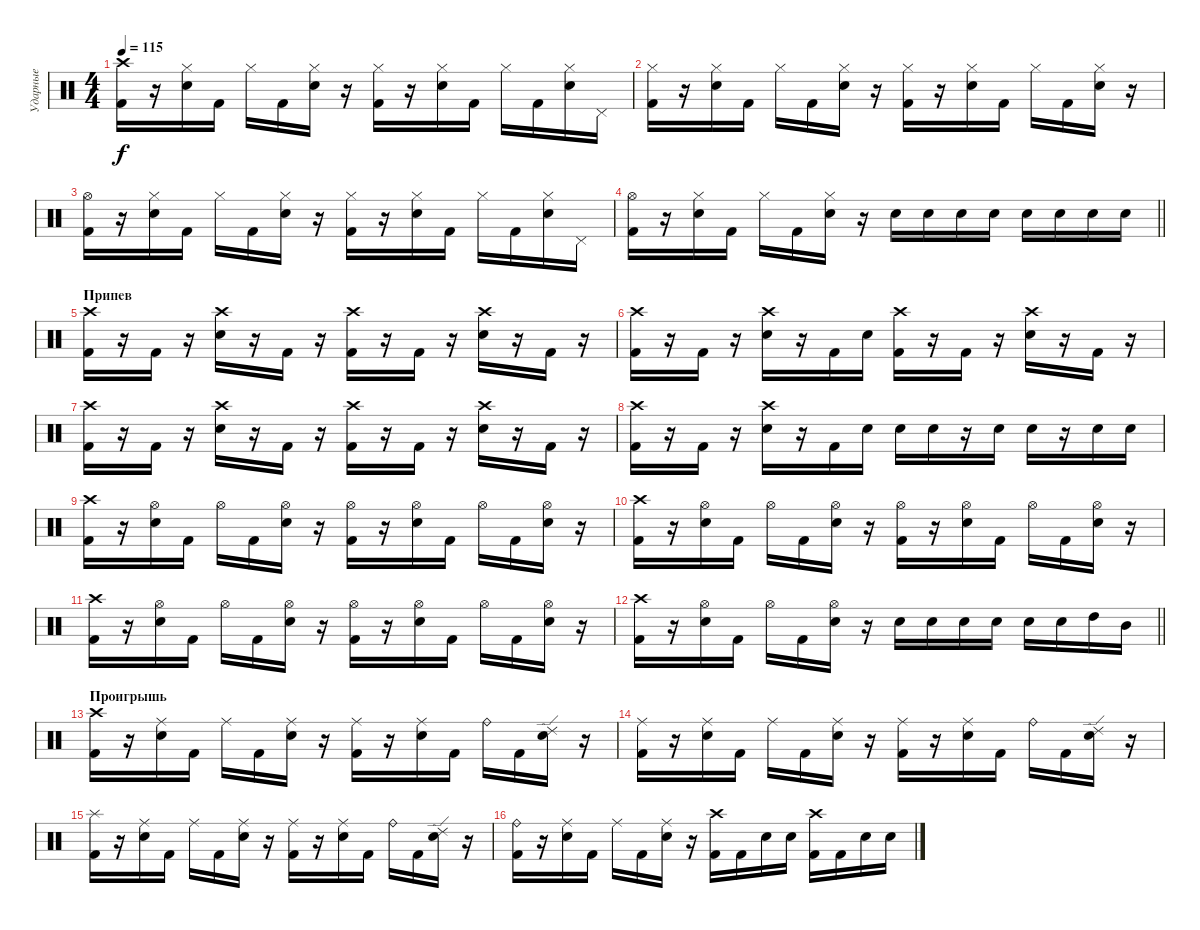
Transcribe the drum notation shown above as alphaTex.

\track ("Ударные" "Ударные") {instrument percussion}
\staff {score}
\articulation defaults
\ts (4 4)
\tempo 115
\clef neutral
\ks c
("Kick (hit) 2" "Crash high (hit)").16{dy f} r.16 ("Electric Snare (hit)" "Hi-Hat (closed)").16 "Kick (hit) 2".16 "Hi-Hat (closed)".16 "Kick (hit) 2".16 ("Electric Snare (hit)" "Hi-Hat (closed)").16 r.16 ("Kick (hit) 2" "Hi-Hat (closed)").16 r.16 ("Electric Snare (hit)" "Hi-Hat (closed)").16 "Kick (hit) 2".16 "Hi-Hat (closed)".16 "Kick (hit) 2".16 ("Electric Snare (hit)" "Hi-Hat (closed)").16 "Pedal Hi-Hat (hit)".16 |
("Kick (hit) 2" "Hi-Hat (closed)").16 r.16 ("Electric Snare (hit)" "Hi-Hat (closed)").16 "Kick (hit) 2".16 "Hi-Hat (closed)".16 "Kick (hit) 2".16 ("Electric Snare (hit)" "Hi-Hat (closed)").16 r.16 ("Kick (hit) 2" "Hi-Hat (closed)").16 r.16 ("Electric Snare (hit)" "Hi-Hat (closed)").16 "Kick (hit) 2".16 "Hi-Hat (closed)".16 "Kick (hit) 2".16 ("Electric Snare (hit)" "Hi-Hat (closed)").16 r.16 |
("Kick (hit) 2" "Hi-Hat (open)").16 r.16 ("Electric Snare (hit)" "Hi-Hat (closed)").16 "Kick (hit) 2".16 "Hi-Hat (closed)".16 "Kick (hit) 2".16 ("Electric Snare (hit)" "Hi-Hat (closed)").16 r.16 ("Kick (hit) 2" "Hi-Hat (closed)").16 r.16 ("Electric Snare (hit)" "Hi-Hat (closed)").16 "Kick (hit) 2".16 "Hi-Hat (closed)".16 "Kick (hit) 2".16 ("Electric Snare (hit)" "Hi-Hat (closed)").16 "Pedal Hi-Hat (hit)".16 |
\barLineRight lightlight
("Kick (hit) 2" "Hi-Hat (open)").16 r.16 ("Electric Snare (hit)" "Hi-Hat (closed)").16 "Kick (hit) 2".16 "Hi-Hat (closed)".16 "Kick (hit) 2".16 ("Electric Snare (hit)" "Hi-Hat (closed)").16 r.16 "Electric Snare (hit)".16 "Electric Snare (hit)".16 "Electric Snare (hit)".16 "Electric Snare (hit)".16 "Electric Snare (hit)".16 "Electric Snare (hit)".16 "Electric Snare (hit)".16 "Electric Snare (hit)".16 |
\section ("" "Припев")
("Kick (hit) 2" "Crash high (hit)").16 r.16 "Kick (hit) 2".16 r.16 ("Snare (hit) 2" "Crash high (hit)").16 r.16 "Kick (hit) 2".16 r.16 ("Kick (hit) 2" "Crash high (hit)").16 r.16 "Kick (hit) 2".16 r.16 ("Snare (hit) 2" "Crash high (hit)").16 r.16 "Kick (hit) 2".16 r.16 |
("Kick (hit) 2" "Crash high (hit)").16 r.16 "Kick (hit) 2".16 r.16 ("Snare (hit) 2" "Crash high (hit)").16 r.16 "Kick (hit) 2".16 "Electric Snare (hit)".16 ("Kick (hit) 2" "Crash high (hit)").16 r.16 "Kick (hit) 2".16 r.16 ("Snare (hit) 2" "Crash high (hit)").16 r.16 "Kick (hit) 2".16 r.16 |
("Kick (hit) 2" "Crash high (hit)").16 r.16 "Kick (hit) 2".16 r.16 ("Snare (hit) 2" "Crash high (hit)").16 r.16 "Kick (hit) 2".16 r.16 ("Kick (hit) 2" "Crash high (hit)").16 r.16 "Kick (hit) 2".16 r.16 ("Snare (hit) 2" "Crash high (hit)").16 r.16 "Kick (hit) 2".16 r.16 |
("Kick (hit) 2" "Crash high (hit)").16 r.16 "Kick (hit) 2".16 r.16 ("Snare (hit) 2" "Crash high (hit)").16 r.16 "Kick (hit) 2".16 "Electric Snare (hit)".16 "Electric Snare (hit)".16 "Electric Snare (hit)".16 r.16 "Electric Snare (hit)".16 "Electric Snare (hit)".16 r.16 "Electric Snare (hit)".16 "Electric Snare (hit)".16 |
("Kick (hit) 2" "Crash high (hit)").16 r.16 ("Electric Snare (hit)" "Hi-Hat (open)").16 "Kick (hit) 2".16 "Hi-Hat (open)".16 "Kick (hit) 2".16 ("Electric Snare (hit)" "Hi-Hat (open)").16 r.16 ("Kick (hit) 2" "Hi-Hat (open)").16 r.16 ("Electric Snare (hit)" "Hi-Hat (open)").16 "Kick (hit) 2".16 "Hi-Hat (open)".16 "Kick (hit) 2".16 ("Electric Snare (hit)" "Hi-Hat (open)").16 r.16 |
("Kick (hit) 2" "Crash high (hit)").16 r.16 ("Electric Snare (hit)" "Hi-Hat (open)").16 "Kick (hit) 2".16 "Hi-Hat (open)".16 "Kick (hit) 2".16 ("Electric Snare (hit)" "Hi-Hat (open)").16 r.16 ("Kick (hit) 2" "Hi-Hat (open)").16 r.16 ("Electric Snare (hit)" "Hi-Hat (open)").16 "Kick (hit) 2".16 "Hi-Hat (open)".16 "Kick (hit) 2".16 ("Electric Snare (hit)" "Hi-Hat (open)").16 r.16 |
("Kick (hit) 2" "Crash high (hit)").16 r.16 ("Electric Snare (hit)" "Hi-Hat (open)").16 "Kick (hit) 2".16 "Hi-Hat (open)".16 "Kick (hit) 2".16 ("Electric Snare (hit)" "Hi-Hat (open)").16 r.16 ("Kick (hit) 2" "Hi-Hat (open)").16 r.16 ("Electric Snare (hit)" "Hi-Hat (open)").16 "Kick (hit) 2".16 "Hi-Hat (open)".16 "Kick (hit) 2".16 ("Electric Snare (hit)" "Hi-Hat (open)").16 r.16 |
\barLineRight lightlight
("Kick (hit) 2" "Crash high (hit)").16 r.16 ("Electric Snare (hit)" "Hi-Hat (open)").16 "Kick (hit) 2".16 "Hi-Hat (open)".16 "Kick (hit) 2".16 ("Electric Snare (hit)" "Hi-Hat (open)").16 r.16 "Electric Snare (hit)".16 "Electric Snare (hit)".16 "Electric Snare (hit)".16 "Electric Snare (hit)".16 "Electric Snare (hit)".16 "Electric Snare (hit)".16 "High Tom (hit)".16 "Mid Tom (hit)".16 |
\section ("" "Проигрышь")
("Kick (hit) 2" "Crash high (hit)").16 r.16 ("Electric Snare (hit)" "Ride (middle)").16 "Kick (hit) 2".16 "Ride (middle)".16 "Kick (hit) 2".16 ("Electric Snare (hit)" "Ride (middle)").16 r.16 ("Kick (hit) 2" "Ride (middle)").16 r.16 ("Electric Snare (hit)" "Ride (middle)").16 "Kick (hit) 2".16 "Ride (bell)".16 "Kick (hit) 2".16 ("Electric Snare (hit)" "Ride (edge) 2").16 r.16 |
("Kick (hit) 2" "Ride (middle)").16 r.16 ("Electric Snare (hit)" "Ride (middle)").16 "Kick (hit) 2".16 "Ride (middle)".16 "Kick (hit) 2".16 ("Electric Snare (hit)" "Ride (middle)").16 r.16 ("Kick (hit) 2" "Ride (middle)").16 r.16 ("Electric Snare (hit)" "Ride (middle)").16 "Kick (hit) 2".16 "Ride (bell)".16 "Kick (hit) 2".16 ("Electric Snare (hit)" "Ride (edge) 2").16 r.16 |
("Kick (hit) 2" "Splash (hit)").16 r.16 ("Electric Snare (hit)" "Ride (middle)").16 "Kick (hit) 2".16 "Ride (middle)".16 "Kick (hit) 2".16 ("Electric Snare (hit)" "Ride (middle)").16 r.16 ("Kick (hit) 2" "Ride (middle)").16 r.16 ("Electric Snare (hit)" "Ride (middle)").16 "Kick (hit) 2".16 "Ride (bell)".16 "Kick (hit) 2".16 ("Electric Snare (hit)" "Ride (edge) 2").16 r.16 |
("Kick (hit) 2" "Ride (bell)").16 r.16 ("Electric Snare (hit)" "Ride (middle)").16 "Kick (hit) 2".16 "Ride (middle)".16 "Kick (hit) 2".16 ("Electric Snare (hit)" "Ride (middle)").16 r.16 ("Kick (hit) 2" "Crash high (hit)").16 "Kick (hit) 2".16 "Electric Snare (hit)".16 "Electric Snare (hit)".16 ("Kick (hit) 2" "Crash high (hit)").16 "Kick (hit) 2".16 "Electric Snare (hit)".16 "Electric Snare (hit)".16
